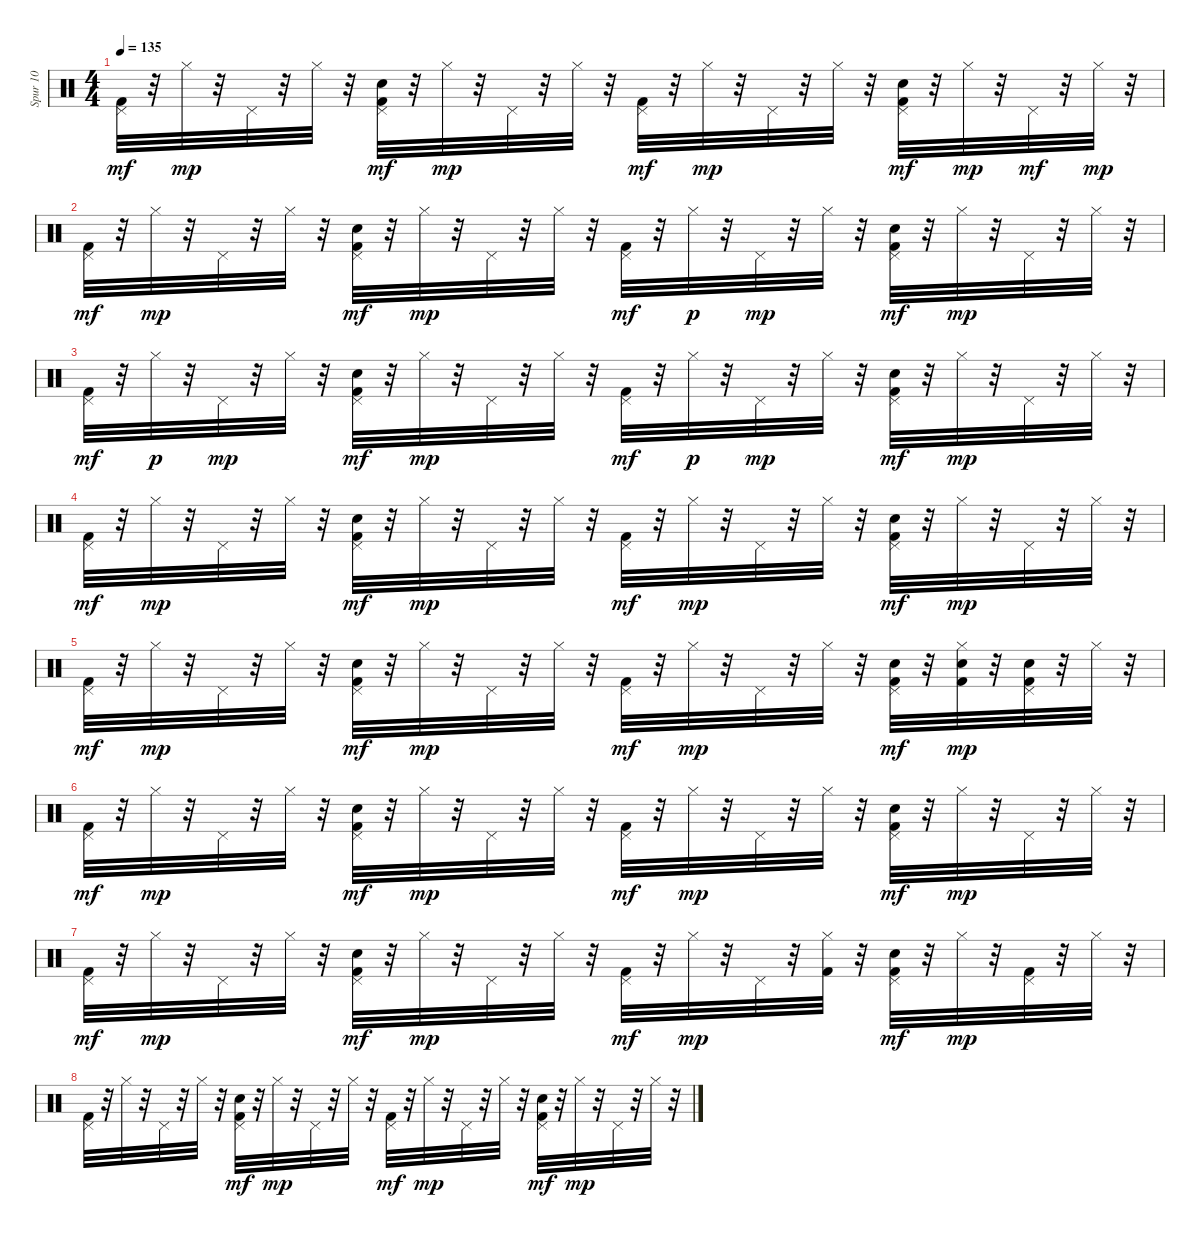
\track ("Spur 10" "Spur 10") {instrument percussion}
\staff {score}
\articulation defaults
\ts (4 4)
\tempo 135
\clef neutral
\ks c
("Kick (hit) 2" "Pedal Hi-Hat (hit)").32{dy mf} r.32 "Hi-Hat (closed)".32{dy mp} r.32 "Pedal Hi-Hat (hit)".32 r.32 "Hi-Hat (closed)".32 r.32 ("Kick (hit) 2" "Snare (hit) 2" "Pedal Hi-Hat (hit)").32{dy mf} r.32 "Hi-Hat (closed)".32{dy mp} r.32 "Pedal Hi-Hat (hit)".32 r.32 "Hi-Hat (closed)".32 r.32 ("Kick (hit) 2" "Pedal Hi-Hat (hit)").32{dy mf} r.32 "Hi-Hat (closed)".32{dy mp} r.32 "Pedal Hi-Hat (hit)".32 r.32 "Hi-Hat (closed)".32 r.32 ("Kick (hit) 2" "Snare (hit) 2" "Pedal Hi-Hat (hit)").32{dy mf} r.32 "Hi-Hat (closed)".32{dy mp} r.32 "Pedal Hi-Hat (hit)".32{dy mf} r.32 "Hi-Hat (closed)".32{dy mp} r.32 |
("Kick (hit) 2" "Pedal Hi-Hat (hit)").32{dy mf} r.32 "Hi-Hat (closed)".32{dy mp} r.32 "Pedal Hi-Hat (hit)".32 r.32 "Hi-Hat (closed)".32 r.32 ("Kick (hit) 2" "Snare (hit) 2" "Pedal Hi-Hat (hit)").32{dy mf} r.32 "Hi-Hat (closed)".32{dy mp} r.32 "Pedal Hi-Hat (hit)".32 r.32 "Hi-Hat (closed)".32 r.32 ("Kick (hit) 2" "Pedal Hi-Hat (hit)").32{dy mf} r.32 "Hi-Hat (closed)".32{dy p} r.32 "Pedal Hi-Hat (hit)".32{dy mp} r.32 "Hi-Hat (closed)".32 r.32 ("Kick (hit) 2" "Snare (hit) 2" "Pedal Hi-Hat (hit)").32{dy mf} r.32 "Hi-Hat (closed)".32{dy mp} r.32 "Pedal Hi-Hat (hit)".32 r.32 "Hi-Hat (closed)".32 r.32 |
("Kick (hit) 2" "Pedal Hi-Hat (hit)").32{dy mf} r.32 "Hi-Hat (closed)".32{dy p} r.32 "Pedal Hi-Hat (hit)".32{dy mp} r.32 "Hi-Hat (closed)".32 r.32 ("Kick (hit) 2" "Snare (hit) 2" "Pedal Hi-Hat (hit)").32{dy mf} r.32 "Hi-Hat (closed)".32{dy mp} r.32 "Pedal Hi-Hat (hit)".32 r.32 "Hi-Hat (closed)".32 r.32 ("Kick (hit) 2" "Pedal Hi-Hat (hit)").32{dy mf} r.32 "Hi-Hat (closed)".32{dy p} r.32 "Pedal Hi-Hat (hit)".32{dy mp} r.32 "Hi-Hat (closed)".32 r.32 ("Kick (hit) 2" "Snare (hit) 2" "Pedal Hi-Hat (hit)").32{dy mf} r.32 "Hi-Hat (closed)".32{dy mp} r.32 "Pedal Hi-Hat (hit)".32 r.32 "Hi-Hat (closed)".32 r.32 |
("Kick (hit) 2" "Pedal Hi-Hat (hit)").32{dy mf} r.32 "Hi-Hat (closed)".32{dy mp} r.32 "Pedal Hi-Hat (hit)".32 r.32 "Hi-Hat (closed)".32 r.32 ("Kick (hit) 2" "Snare (hit) 2" "Pedal Hi-Hat (hit)").32{dy mf} r.32 "Hi-Hat (closed)".32{dy mp} r.32 "Pedal Hi-Hat (hit)".32 r.32 "Hi-Hat (closed)".32 r.32 ("Kick (hit) 2" "Pedal Hi-Hat (hit)").32{dy mf} r.32 "Hi-Hat (closed)".32{dy mp} r.32 "Pedal Hi-Hat (hit)".32 r.32 "Hi-Hat (closed)".32 r.32 ("Kick (hit) 2" "Snare (hit) 2" "Pedal Hi-Hat (hit)").32{dy mf} r.32 "Hi-Hat (closed)".32{dy mp} r.32 "Pedal Hi-Hat (hit)".32 r.32 "Hi-Hat (closed)".32 r.32 |
("Kick (hit) 2" "Pedal Hi-Hat (hit)").32{dy mf} r.32 "Hi-Hat (closed)".32{dy mp} r.32 "Pedal Hi-Hat (hit)".32 r.32 "Hi-Hat (closed)".32 r.32 ("Kick (hit) 2" "Snare (hit) 2" "Pedal Hi-Hat (hit)").32{dy mf} r.32 "Hi-Hat (closed)".32{dy mp} r.32 "Pedal Hi-Hat (hit)".32 r.32 "Hi-Hat (closed)".32 r.32 ("Kick (hit) 2" "Pedal Hi-Hat (hit)").32{dy mf} r.32 "Hi-Hat (closed)".32{dy mp} r.32 "Pedal Hi-Hat (hit)".32 r.32 "Hi-Hat (closed)".32 r.32 ("Kick (hit) 2" "Snare (hit) 2" "Pedal Hi-Hat (hit)").32{dy mf} r.32 ("Kick (hit) 2" "Snare (hit) 2" "Hi-Hat (closed)").32{dy mp} r.32 ("Kick (hit) 2" "Snare (hit) 2" "Pedal Hi-Hat (hit)").32 r.32 "Hi-Hat (closed)".32 r.32 |
("Kick (hit) 2" "Pedal Hi-Hat (hit)").32{dy mf} r.32 "Hi-Hat (closed)".32{dy mp} r.32 "Pedal Hi-Hat (hit)".32 r.32 "Hi-Hat (closed)".32 r.32 ("Kick (hit) 2" "Snare (hit) 2" "Pedal Hi-Hat (hit)").32{dy mf} r.32 "Hi-Hat (closed)".32{dy mp} r.32 "Pedal Hi-Hat (hit)".32 r.32 "Hi-Hat (closed)".32 r.32 ("Kick (hit) 2" "Pedal Hi-Hat (hit)").32{dy mf} r.32 "Hi-Hat (closed)".32{dy mp} r.32 "Pedal Hi-Hat (hit)".32 r.32 "Hi-Hat (closed)".32 r.32 ("Kick (hit) 2" "Snare (hit) 2" "Pedal Hi-Hat (hit)").32{dy mf} r.32 "Hi-Hat (closed)".32{dy mp} r.32 "Pedal Hi-Hat (hit)".32 r.32 "Hi-Hat (closed)".32 r.32 |
("Kick (hit) 2" "Pedal Hi-Hat (hit)").32{dy mf} r.32 "Hi-Hat (closed)".32{dy mp} r.32 "Pedal Hi-Hat (hit)".32 r.32 "Hi-Hat (closed)".32 r.32 ("Kick (hit) 2" "Snare (hit) 2" "Pedal Hi-Hat (hit)").32{dy mf} r.32 "Hi-Hat (closed)".32{dy mp} r.32 "Pedal Hi-Hat (hit)".32 r.32 "Hi-Hat (closed)".32 r.32 ("Kick (hit) 2" "Pedal Hi-Hat (hit)").32{dy mf} r.32 "Hi-Hat (closed)".32{dy mp} r.32 "Pedal Hi-Hat (hit)".32 r.32 ("Kick (hit) 2" "Hi-Hat (closed)").32 r.32 ("Kick (hit) 2" "Snare (hit) 2" "Pedal Hi-Hat (hit)").32{dy mf} r.32 "Hi-Hat (closed)".32{dy mp} r.32 ("Kick (hit) 2" "Pedal Hi-Hat (hit)").32 r.32 "Hi-Hat (closed)".32 r.32 |
("Kick (hit) 2" "Pedal Hi-Hat (hit)").32 r.32 "Hi-Hat (closed)".32 r.32 "Pedal Hi-Hat (hit)".32 r.32 "Hi-Hat (closed)".32 r.32 ("Kick (hit) 2" "Snare (hit) 2" "Pedal Hi-Hat (hit)").32{dy mf} r.32 "Hi-Hat (closed)".32{dy mp} r.32 "Pedal Hi-Hat (hit)".32 r.32 "Hi-Hat (closed)".32 r.32 ("Kick (hit) 2" "Pedal Hi-Hat (hit)").32{dy mf} r.32 "Hi-Hat (closed)".32{dy mp} r.32 "Pedal Hi-Hat (hit)".32 r.32 "Hi-Hat (closed)".32 r.32 ("Kick (hit) 2" "Snare (hit) 2" "Pedal Hi-Hat (hit)").32{dy mf} r.32 "Hi-Hat (closed)".32{dy mp} r.32 "Pedal Hi-Hat (hit)".32 r.32 "Hi-Hat (closed)".32 r.32
